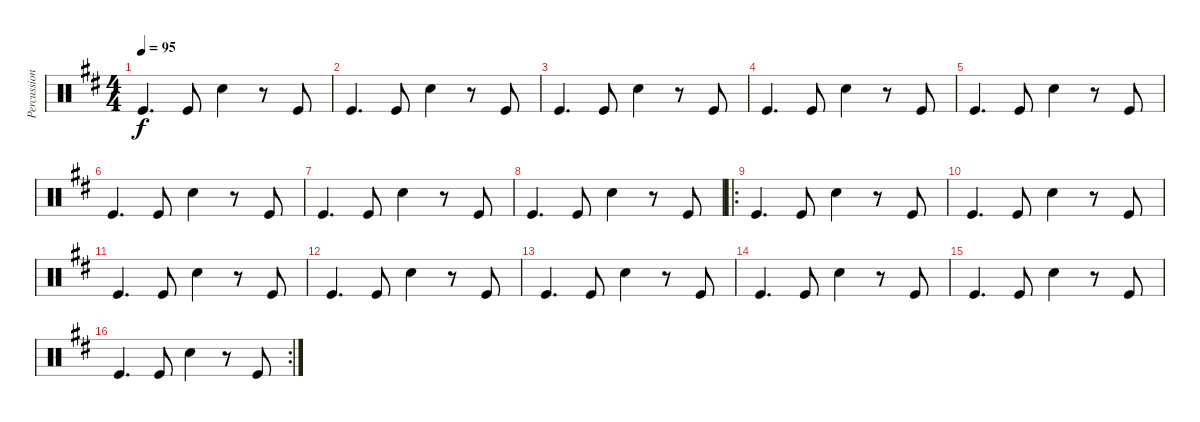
\track ("Percussion" "Percussion") {instrument percussion}
\staff {score}
\articulation defaults
\ts (4 4)
\tempo 95
\clef neutral
\ks d "Kick (hit)".4{d dy f} "Kick (hit)".8 "Snare (hit) 2".4
r.8 "Kick (hit)".8 |
"Kick (hit)".4{d} "Kick (hit)".8 "Snare (hit) 2".4 r.8 "Kick (hit)".8 |
"Kick (hit)".4{d} "Kick (hit)".8 "Snare (hit) 2".4 r.8 "Kick (hit)".8 |
"Kick (hit)".4{d} "Kick (hit)".8 "Snare (hit) 2".4 r.8 "Kick (hit)".8 |
"Kick (hit)".4{d} "Kick (hit)".8 "Snare (hit) 2".4 r.8 "Kick (hit)".8 |
"Kick (hit)".4{d} "Kick (hit)".8 "Snare (hit) 2".4 r.8 "Kick (hit)".8 |
"Kick (hit)".4{d} "Kick (hit)".8 "Snare (hit) 2".4 r.8 "Kick (hit)".8 |
"Kick (hit)".4{d} "Kick (hit)".8 "Snare (hit) 2".4 r.8 "Kick (hit)".8 |
\ro "Kick (hit)".4{d} "Kick (hit)".8 "Snare (hit) 2".4
r.8 "Kick (hit)".8 |
"Kick (hit)".4{d} "Kick (hit)".8 "Snare (hit) 2".4 r.8 "Kick (hit)".8 |
"Kick (hit)".4{d} "Kick (hit)".8 "Snare (hit) 2".4 r.8 "Kick (hit)".8 |
"Kick (hit)".4{d} "Kick (hit)".8 "Snare (hit) 2".4 r.8 "Kick (hit)".8 |
"Kick (hit)".4{d} "Kick (hit)".8 "Snare (hit) 2".4 r.8 "Kick (hit)".8 |
"Kick (hit)".4{d} "Kick (hit)".8 "Snare (hit) 2".4 r.8 "Kick (hit)".8 |
"Kick (hit)".4{d} "Kick (hit)".8 "Snare (hit) 2".4 r.8 "Kick (hit)".8 |
\rc 2 "Kick (hit)".4{d} "Kick (hit)".8 "Snare (hit) 2".4
r.8 "Kick (hit)".8
